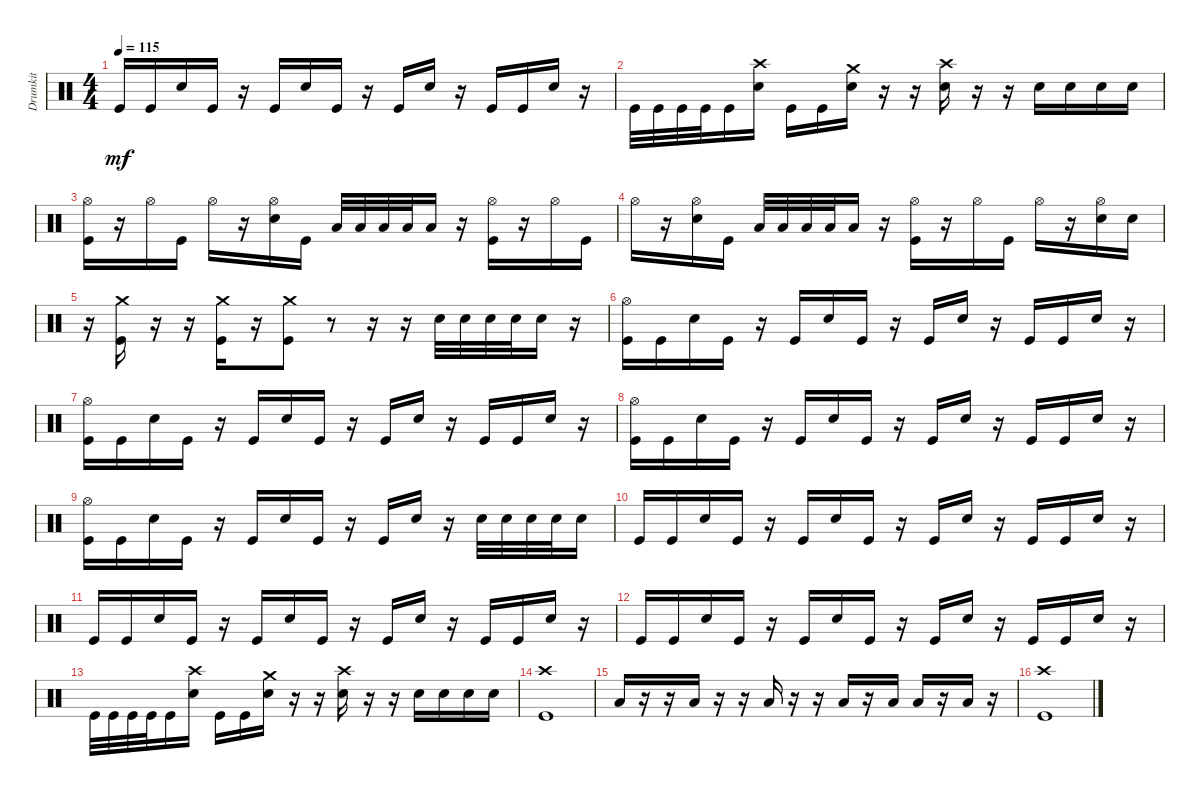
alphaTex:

\track ("Drumkit" "Drumkit") {instrument percussion}
\staff {score}
\articulation defaults
\ts (4 4)
\tempo 115
\clef neutral
\ks c "Kick (hit)".16{dy mf} "Kick (hit)".16 "Snare (hit) 2".16 "Kick (hit)".16
r.16 "Kick (hit)".16 "Snare (hit) 2".16 "Kick (hit)".16 r.16 "Kick (hit)".16 "Snare (hit) 2".16 r.16 "Kick (hit)".16 "Kick (hit)".16 "Snare (hit) 2".16 r.16 |
"Kick (hit)".32 "Kick (hit)".32 "Kick (hit)".32 "Kick (hit)".32 "Kick (hit)".16 ("Snare (hit) 2" "Crash high (hit)").16 "Kick (hit)".16 "Kick (hit)".16 ("Snare (hit) 2" "Crash medium (hit)").16 r.16 r.16 ("Snare (hit) 2" "Crash high (hit)").16 r.16 r.16 "Snare (hit) 2".16 "Snare (hit) 2".16 "Snare (hit) 2".16 "Snare (hit) 2".16 |
("Kick (hit)" "Hi-Hat (open)").16 r.16 "Hi-Hat (open)".16 "Kick (hit)".16 "Hi-Hat (open)".16 r.16 ("Hi-Hat (open)" "Snare (hit) 2").16 "Kick (hit)".16 "Low Tom (hit)".32 "Low Tom (hit)".32 "Low Tom (hit)".32 "Low Tom (hit)".32 "Low Tom (hit)".16 r.16 ("Kick (hit)" "Hi-Hat (open)").16 r.16 "Hi-Hat (open)".16 "Kick (hit)".16 |
"Hi-Hat (open)".16 r.16 ("Hi-Hat (open)" "Snare (hit) 2").16 "Kick (hit)".16 "Low Tom (hit)".32 "Low Tom (hit)".32 "Low Tom (hit)".32 "Low Tom (hit)".32 "Low Tom (hit)".16 r.16 ("Kick (hit)" "Hi-Hat (open)").16 r.16 "Hi-Hat (open)".16 "Kick (hit)".16 "Hi-Hat (open)".16 r.16 ("Hi-Hat (open)" "Snare (hit) 2").16 "Snare (hit) 2".16 |
r.16 ("Kick (hit)" "Crash medium (hit)").16 r.16 r.16 ("Kick (hit)" "Crash medium (hit)").16 r.16 ("Kick (hit)" "Crash medium (hit)").8 r.8 r.16 r.16 "Snare (hit) 2".32 "Snare (hit) 2".32 "Snare (hit) 2".32 "Snare (hit) 2".32 "Snare (hit) 2".16 r.16 |
("Kick (hit)" "Hi-Hat (open)").16 "Kick (hit)".16 "Snare (hit) 2".16 "Kick (hit)".16 r.16 "Kick (hit)".16 "Snare (hit) 2".16 "Kick (hit)".16 r.16 "Kick (hit)".16 "Snare (hit) 2".16 r.16 "Kick (hit)".16 "Kick (hit)".16 "Snare (hit) 2".16 r.16 |
("Kick (hit)" "Hi-Hat (open)").16 "Kick (hit)".16 "Snare (hit) 2".16 "Kick (hit)".16 r.16 "Kick (hit)".16 "Snare (hit) 2".16 "Kick (hit)".16 r.16 "Kick (hit)".16 "Snare (hit) 2".16 r.16 "Kick (hit)".16 "Kick (hit)".16 "Snare (hit) 2".16 r.16 |
("Kick (hit)" "Hi-Hat (open)").16 "Kick (hit)".16 "Snare (hit) 2".16 "Kick (hit)".16 r.16 "Kick (hit)".16 "Snare (hit) 2".16 "Kick (hit)".16 r.16 "Kick (hit)".16 "Snare (hit) 2".16 r.16 "Kick (hit)".16 "Kick (hit)".16 "Snare (hit) 2".16 r.16 |
("Kick (hit)" "Hi-Hat (open)").16 "Kick (hit)".16 "Snare (hit) 2".16 "Kick (hit)".16 r.16 "Kick (hit)".16 "Snare (hit) 2".16 "Kick (hit)".16 r.16 "Kick (hit)".16 "Snare (hit) 2".16 r.16 "Snare (hit) 2".32 "Snare (hit) 2".32 "Snare (hit) 2".32 "Snare (hit) 2".32 "Snare (hit) 2".16 |
"Kick (hit)".16 "Kick (hit)".16 "Snare (hit) 2".16 "Kick (hit)".16 r.16 "Kick (hit)".16 "Snare (hit) 2".16 "Kick (hit)".16 r.16 "Kick (hit)".16 "Snare (hit) 2".16 r.16 "Kick (hit)".16 "Kick (hit)".16 "Snare (hit) 2".16 r.16 |
"Kick (hit)".16 "Kick (hit)".16 "Snare (hit) 2".16 "Kick (hit)".16 r.16 "Kick (hit)".16 "Snare (hit) 2".16 "Kick (hit)".16 r.16 "Kick (hit)".16 "Snare (hit) 2".16 r.16 "Kick (hit)".16 "Kick (hit)".16 "Snare (hit) 2".16 r.16 |
"Kick (hit)".16 "Kick (hit)".16 "Snare (hit) 2".16 "Kick (hit)".16 r.16 "Kick (hit)".16 "Snare (hit) 2".16 "Kick (hit)".16 r.16 "Kick (hit)".16 "Snare (hit) 2".16 r.16 "Kick (hit)".16 "Kick (hit)".16 "Snare (hit) 2".16 r.16 |
"Kick (hit)".32 "Kick (hit)".32 "Kick (hit)".32 "Kick (hit)".32 "Kick (hit)".16 ("Snare (hit) 2" "Crash high (hit)").16 "Kick (hit)".16 "Kick (hit)".16 ("Snare (hit) 2" "Crash medium (hit)").16 r.16 r.16 ("Snare (hit) 2" "Crash high (hit)").16 r.16 r.16 "Snare (hit) 2".16 "Snare (hit) 2".16 "Snare (hit) 2".16 "Snare (hit) 2".16 |
("Kick (hit)" "Crash high (hit)").1 |
"Low Tom (hit)".16 r.16 r.16 "Low Tom (hit)".16 r.16 r.16 "Low Tom (hit)".16 r.16 r.16 "Low Tom (hit)".16 r.16 "Low Tom (hit)".16 "Low Tom (hit)".16 r.16 "Low Tom (hit)".16 r.16 |
("Kick (hit)" "Crash high (hit)").1
